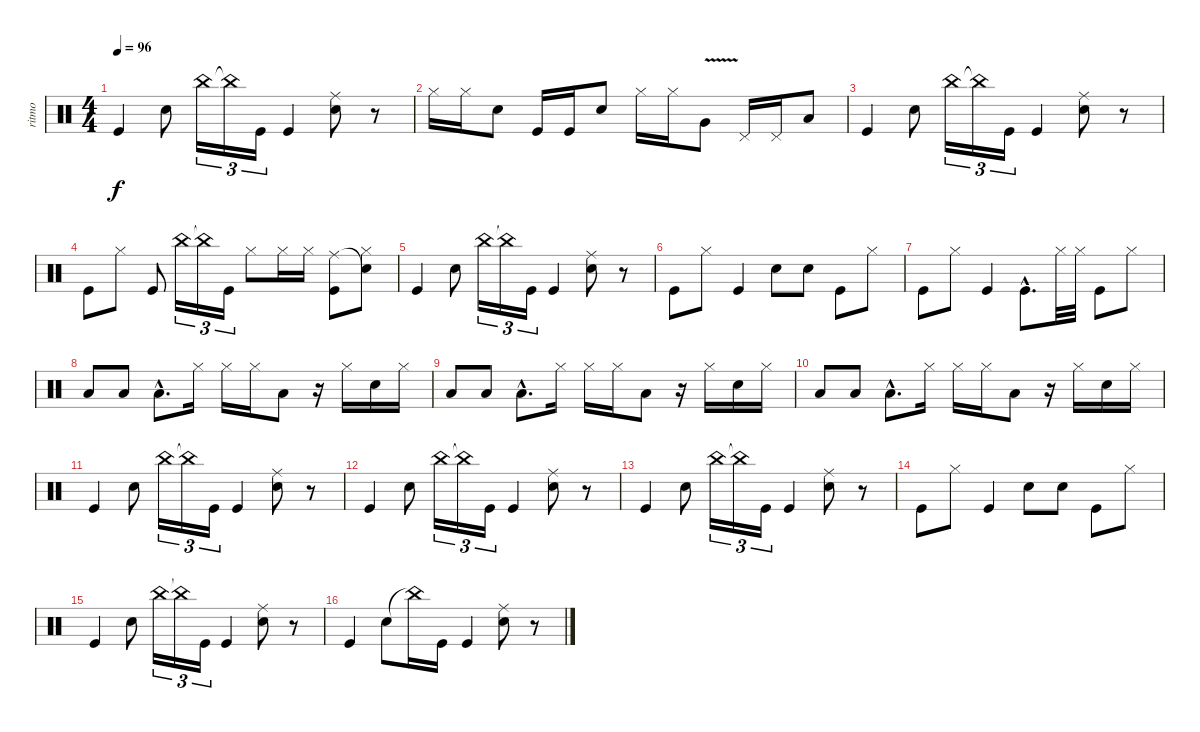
\track ("ritmo" "ritmo") {instrument percussion}
\staff {score}
\articulation defaults
\ts (4 4)
\tempo 96
\clef neutral
\ks c "Kick (hit)".4{dy f} "Snare (hit) 2".8 "China (hit)".16{tu (3 2)} "China (hit)"{t}.16{tu (3 2)} "Kick (hit)".16{tu (3 2)} "Kick (hit)".4
("Snare (hit) 2" "Ride (middle)").8 r.8 |
"Hi-Hat (closed)".16 "Hi-Hat (closed)".16 "Snare (hit) 2".8 "Kick (hit)".16 "Kick (hit)".16 "Electric Snare (hit)".8 "Hi-Hat (closed)".16 "Hi-Hat (closed)".16 "Very Low Tom (hit)"{v}.8 "Pedal Hi-Hat (hit)".16 "Pedal Hi-Hat (hit)".16 "Low Tom (hit)".8 |
"Kick (hit)".4 "Snare (hit) 2".8 "China (hit)".16{tu (3 2)} "China (hit)"{t}.16{tu (3 2)} "Kick (hit)".16{tu (3 2)} "Kick (hit)".4 ("Snare (hit) 2" "Ride (middle)").8 r.8 |
"Kick (hit)".8 "Hi-Hat (closed)".8 "Kick (hit)".8 "China (hit)".16{tu (3 2)} "China (hit)"{t}.16{tu (3 2)} "Kick (hit)".16{tu (3 2)} "Hi-Hat (closed)".8 "Hi-Hat (closed)".16 "Hi-Hat (closed)".16 ("Kick (hit)" "Ride (middle)").8 ("Hi-Hat (closed)" "Snare (hit)"{t}).8 |
"Kick (hit)".4 "Snare (hit) 2".8 "China (hit)".16{tu (3 2)} "China (hit)"{t}.16{tu (3 2)} "Kick (hit)".16{tu (3 2)} "Kick (hit)".4 ("Snare (hit) 2" "Ride (middle)").8 r.8 |
"Kick (hit)".8 "Hi-Hat (closed)".8 "Kick (hit)".4 "Snare (hit) 2".8 "Snare (hit) 2".8 "Kick (hit)".8 "Hi-Hat (closed)".8 |
"Kick (hit)".8 "Hi-Hat (closed)".8 "Kick (hit)".4 "Kick (hit)"{hac}.8{d} "Hi-Hat (closed)".32 "Hi-Hat (closed)".32 "Kick (hit)".8 "Hi-Hat (closed)".8 |
"Low Floor Tom (hit)".8 "Low Floor Tom (hit)".8 "Low Floor Tom (hit)"{hac}.8{d} "Hi-Hat (closed)".16 "Hi-Hat (closed)".16 "Hi-Hat (closed)".16 "Low Floor Tom (hit)".8 r.16 "Hi-Hat (closed)".16 "Snare (hit) 2".16 "Hi-Hat (closed)".16 |
"Low Floor Tom (hit)".8 "Low Floor Tom (hit)".8 "Low Floor Tom (hit)"{hac}.8{d} "Hi-Hat (closed)".16 "Hi-Hat (closed)".16 "Hi-Hat (closed)".16 "Low Floor Tom (hit)".8 r.16 "Hi-Hat (closed)".16 "Snare (hit) 2".16 "Hi-Hat (closed)".16 |
"Low Floor Tom (hit)".8 "Low Floor Tom (hit)".8 "Low Floor Tom (hit)"{hac}.8{d} "Hi-Hat (closed)".16 "Hi-Hat (closed)".16 "Hi-Hat (closed)".16 "Low Floor Tom (hit)".8 r.16 "Hi-Hat (closed)".16 "Snare (hit) 2".16 "Hi-Hat (closed)".16 |
"Kick (hit)".4 "Snare (hit) 2".8 "China (hit)".16{tu (3 2)} "China (hit)"{t}.16{tu (3 2)} "Kick (hit)".16{tu (3 2)} "Kick (hit)".4 ("Snare (hit) 2" "Ride (middle)").8 r.8 |
"Kick (hit)".4 "Snare (hit) 2".8 "China (hit)".16{tu (3 2)} "China (hit)"{t}.16{tu (3 2)} "Kick (hit)".16{tu (3 2)} "Kick (hit)".4 ("Snare (hit) 2" "Ride (middle)").8 r.8 |
"Kick (hit)".4 "Snare (hit) 2".8 "China (hit)".16{tu (3 2)} "China (hit)"{t}.16{tu (3 2)} "Kick (hit)".16{tu (3 2)} "Kick (hit)".4 ("Snare (hit) 2" "Ride (middle)").8 r.8 |
"Kick (hit)".8 "Hi-Hat (closed)".8 "Kick (hit)".4 "Snare (hit) 2".8 "Snare (hit) 2".8 "Kick (hit)".8 "Hi-Hat (closed)".8 |
"Kick (hit)".4 "Snare (hit) 2".8 "China (hit)".16{tu (3 2)} "China (hit)"{t}.16{tu (3 2)} "Kick (hit)".16{tu (3 2)} "Kick (hit)".4 ("Snare (hit) 2" "Ride (middle)").8 r.8 |
"Kick (hit)".4 "Snare (hit) 2".8 "China (hit)"{t}.16 "Kick (hit)".16 "Kick (hit)".4 ("Snare (hit) 2" "Ride (middle)").8 r.8
